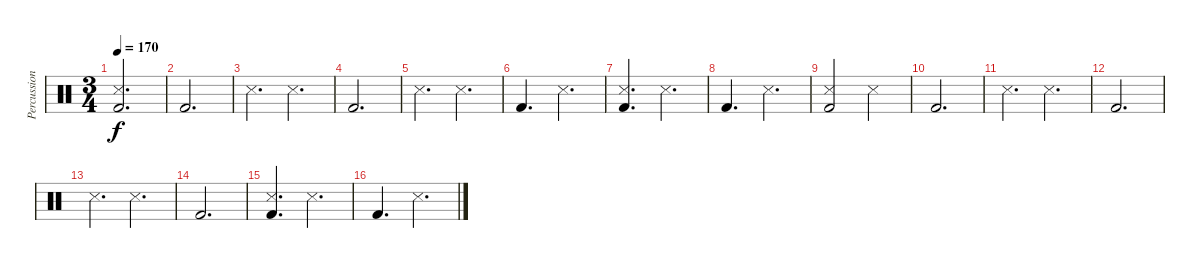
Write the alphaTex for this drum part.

\track ("Percussion" "Percussion") {instrument percussion}
\staff {score}
\articulation defaults
\ts (3 4)
\tempo 170
\clef neutral
\ks c
("Snare (side stick) 3" "Kick (hit) 2").2{d dy f} |
"Kick (hit) 2".2{d} |
"Snare (side stick) 3".4{d} "Snare (side stick) 3".4{d} |
"Kick (hit) 2".2{d} |
"Snare (side stick) 3".4{d} "Snare (side stick) 3".4{d} |
"Kick (hit) 2".4{d} "Snare (side stick) 3".4{d} |
("Snare (side stick) 3" "Kick (hit) 2").4{d} "Snare (side stick) 3".4{d} |
"Kick (hit) 2".4{d} "Snare (side stick) 3".4{d} |
("Snare (side stick) 3" "Kick (hit) 2").2 "Snare (side stick) 3".4 |
"Kick (hit) 2".2{d} |
"Snare (side stick) 3".4{d} "Snare (side stick) 3".4{d} |
"Kick (hit) 2".2{d} |
"Snare (side stick) 3".4{d} "Snare (side stick) 3".4{d} |
"Kick (hit) 2".2{d} |
("Snare (side stick) 3" "Kick (hit) 2").4{d} "Snare (side stick) 3".4{d} |
"Kick (hit) 2".4{d} "Snare (side stick) 3".4{d}
